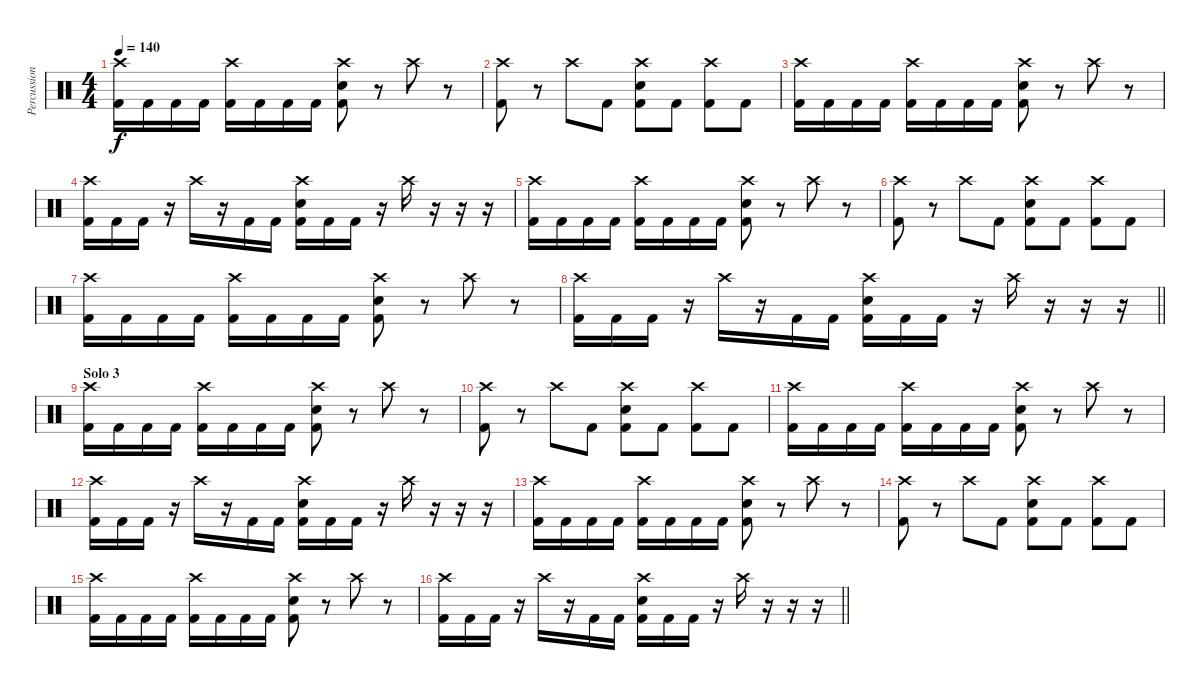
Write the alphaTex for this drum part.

\track ("Percussion" "Percussion") {instrument percussion}
\staff {score}
\articulation defaults
\ts (4 4)
\tempo 140
\clef neutral
\ks c
("Crash high (hit)" "Kick (hit) 2").16{dy f} "Kick (hit) 2".16 "Kick (hit) 2".16 "Kick (hit) 2".16 ("Crash high (hit)" "Kick (hit) 2").16 "Kick (hit) 2".16 "Kick (hit) 2".16 "Kick (hit) 2".16 ("Crash high (hit)" "Electric Snare (hit)" "Kick (hit) 2").8 r.8 "Crash high (hit)".8 r.8 |
("Crash high (hit)" "Kick (hit) 2").8 r.8 "Crash high (hit)".8 "Kick (hit) 2".8 ("Crash high (hit)" "Electric Snare (hit)" "Kick (hit) 2").8 "Kick (hit) 2".8 ("Crash high (hit)" "Kick (hit) 2").8 "Kick (hit) 2".8 |
("Crash high (hit)" "Kick (hit) 2").16 "Kick (hit) 2".16 "Kick (hit) 2".16 "Kick (hit) 2".16 ("Crash high (hit)" "Kick (hit) 2").16 "Kick (hit) 2".16 "Kick (hit) 2".16 "Kick (hit) 2".16 ("Crash high (hit)" "Electric Snare (hit)" "Kick (hit) 2").8 r.8 "Crash high (hit)".8 r.8 |
("Crash high (hit)" "Kick (hit) 2").16 "Kick (hit) 2".16 "Kick (hit) 2".16 r.16 "Crash high (hit)".16 r.16 "Kick (hit) 2".16 "Kick (hit) 2".16 ("Crash high (hit)" "Electric Snare (hit)" "Kick (hit) 2").16 "Kick (hit) 2".16 "Kick (hit) 2".16 r.16 "Crash high (hit)".16 r.16 r.16 r.16 |
("Crash high (hit)" "Kick (hit) 2").16 "Kick (hit) 2".16 "Kick (hit) 2".16 "Kick (hit) 2".16 ("Crash high (hit)" "Kick (hit) 2").16 "Kick (hit) 2".16 "Kick (hit) 2".16 "Kick (hit) 2".16 ("Crash high (hit)" "Electric Snare (hit)" "Kick (hit) 2").8 r.8 "Crash high (hit)".8 r.8 |
("Crash high (hit)" "Kick (hit) 2").8 r.8 "Crash high (hit)".8 "Kick (hit) 2".8 ("Crash high (hit)" "Electric Snare (hit)" "Kick (hit) 2").8 "Kick (hit) 2".8 ("Crash high (hit)" "Kick (hit) 2").8 "Kick (hit) 2".8 |
("Crash high (hit)" "Kick (hit) 2").16 "Kick (hit) 2".16 "Kick (hit) 2".16 "Kick (hit) 2".16 ("Crash high (hit)" "Kick (hit) 2").16 "Kick (hit) 2".16 "Kick (hit) 2".16 "Kick (hit) 2".16 ("Crash high (hit)" "Electric Snare (hit)" "Kick (hit) 2").8 r.8 "Crash high (hit)".8 r.8 |
\barLineRight lightlight
("Crash high (hit)" "Kick (hit) 2").16 "Kick (hit) 2".16 "Kick (hit) 2".16 r.16 "Crash high (hit)".16 r.16 "Kick (hit) 2".16 "Kick (hit) 2".16 ("Crash high (hit)" "Electric Snare (hit)" "Kick (hit) 2").16 "Kick (hit) 2".16 "Kick (hit) 2".16 r.16 "Crash high (hit)".16 r.16 r.16 r.16 |
\section ("" "Solo 3")
("Crash high (hit)" "Kick (hit) 2").16 "Kick (hit) 2".16 "Kick (hit) 2".16 "Kick (hit) 2".16 ("Crash high (hit)" "Kick (hit) 2").16 "Kick (hit) 2".16 "Kick (hit) 2".16 "Kick (hit) 2".16 ("Crash high (hit)" "Electric Snare (hit)" "Kick (hit) 2").8 r.8 "Crash high (hit)".8 r.8 |
("Crash high (hit)" "Kick (hit) 2").8 r.8 "Crash high (hit)".8 "Kick (hit) 2".8 ("Crash high (hit)" "Electric Snare (hit)" "Kick (hit) 2").8 "Kick (hit) 2".8 ("Crash high (hit)" "Kick (hit) 2").8 "Kick (hit) 2".8 |
("Crash high (hit)" "Kick (hit) 2").16 "Kick (hit) 2".16 "Kick (hit) 2".16 "Kick (hit) 2".16 ("Crash high (hit)" "Kick (hit) 2").16 "Kick (hit) 2".16 "Kick (hit) 2".16 "Kick (hit) 2".16 ("Crash high (hit)" "Electric Snare (hit)" "Kick (hit) 2").8 r.8 "Crash high (hit)".8 r.8 |
("Crash high (hit)" "Kick (hit) 2").16 "Kick (hit) 2".16 "Kick (hit) 2".16 r.16 "Crash high (hit)".16 r.16 "Kick (hit) 2".16 "Kick (hit) 2".16 ("Crash high (hit)" "Electric Snare (hit)" "Kick (hit) 2").16 "Kick (hit) 2".16 "Kick (hit) 2".16 r.16 "Crash high (hit)".16 r.16 r.16 r.16 |
("Crash high (hit)" "Kick (hit) 2").16 "Kick (hit) 2".16 "Kick (hit) 2".16 "Kick (hit) 2".16 ("Crash high (hit)" "Kick (hit) 2").16 "Kick (hit) 2".16 "Kick (hit) 2".16 "Kick (hit) 2".16 ("Crash high (hit)" "Electric Snare (hit)" "Kick (hit) 2").8 r.8 "Crash high (hit)".8 r.8 |
("Crash high (hit)" "Kick (hit) 2").8 r.8 "Crash high (hit)".8 "Kick (hit) 2".8 ("Crash high (hit)" "Electric Snare (hit)" "Kick (hit) 2").8 "Kick (hit) 2".8 ("Crash high (hit)" "Kick (hit) 2").8 "Kick (hit) 2".8 |
("Crash high (hit)" "Kick (hit) 2").16 "Kick (hit) 2".16 "Kick (hit) 2".16 "Kick (hit) 2".16 ("Crash high (hit)" "Kick (hit) 2").16 "Kick (hit) 2".16 "Kick (hit) 2".16 "Kick (hit) 2".16 ("Crash high (hit)" "Electric Snare (hit)" "Kick (hit) 2").8 r.8 "Crash high (hit)".8 r.8 |
\barLineRight lightlight
("Crash high (hit)" "Kick (hit) 2").16 "Kick (hit) 2".16 "Kick (hit) 2".16 r.16 "Crash high (hit)".16 r.16 "Kick (hit) 2".16 "Kick (hit) 2".16 ("Crash high (hit)" "Electric Snare (hit)" "Kick (hit) 2").16 "Kick (hit) 2".16 "Kick (hit) 2".16 r.16 "Crash high (hit)".16 r.16 r.16 r.16
